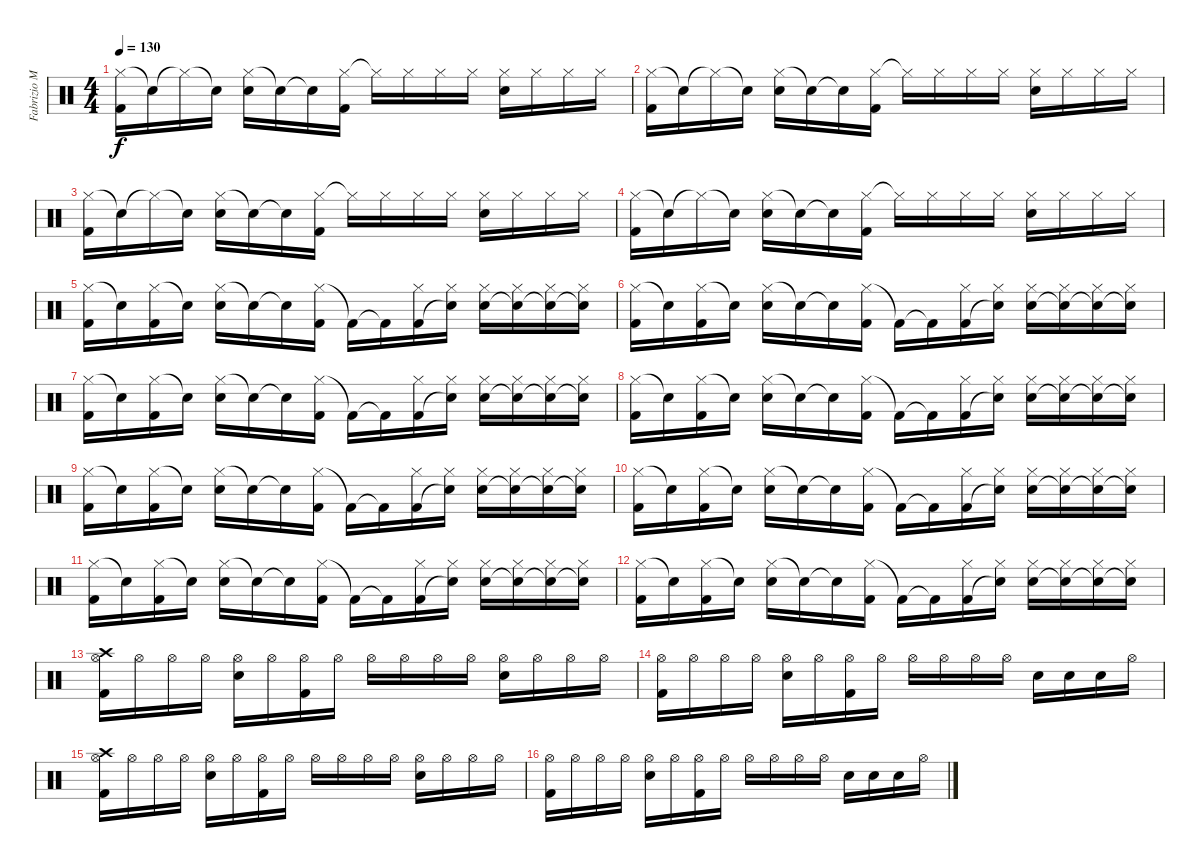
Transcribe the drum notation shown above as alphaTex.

\track ("Fabrizio Moretti" "Fabrizio M") {instrument percussion bank 127}
\staff {score}
\articulation defaults
\ts (4 4)
\tempo 130
\clef neutral
\ks c
("Hi-Hat (closed)" "Kick (hit) 2").16{dy f} "Snare (hit)"{t}.16 "Hi-Hat (closed)"{t}.16 "Snare (hit)"{t}.16 ("Hi-Hat (closed)" "Electric Snare (hit)").16 "Snare (hit)"{t}.16 "Snare (hit)"{t}.16 ("Hi-Hat (closed)" "Kick (hit) 2").16 "Hi-Hat (closed)"{t}.16 "Hi-Hat (closed)".16 "Hi-Hat (closed)".16 "Hi-Hat (closed)".16 ("Hi-Hat (closed)" "Electric Snare (hit)").16 "Hi-Hat (closed)".16 "Hi-Hat (closed)".16 "Hi-Hat (closed)".16 |
("Hi-Hat (closed)" "Kick (hit) 2").16 "Snare (hit)"{t}.16 "Hi-Hat (closed)"{t}.16 "Snare (hit)"{t}.16 ("Hi-Hat (closed)" "Electric Snare (hit)").16 "Snare (hit)"{t}.16 "Snare (hit)"{t}.16 ("Hi-Hat (closed)" "Kick (hit) 2").16 "Hi-Hat (closed)"{t}.16 "Hi-Hat (closed)".16 "Hi-Hat (closed)".16 "Hi-Hat (closed)".16 ("Hi-Hat (closed)" "Electric Snare (hit)").16 "Hi-Hat (closed)".16 "Hi-Hat (closed)".16 "Hi-Hat (closed)".16 |
("Hi-Hat (closed)" "Kick (hit) 2").16 "Snare (hit)"{t}.16 "Hi-Hat (closed)"{t}.16 "Snare (hit)"{t}.16 ("Hi-Hat (closed)" "Electric Snare (hit)").16 "Snare (hit)"{t}.16 "Snare (hit)"{t}.16 ("Hi-Hat (closed)" "Kick (hit) 2").16 "Hi-Hat (closed)"{t}.16 "Hi-Hat (closed)".16 "Hi-Hat (closed)".16 "Hi-Hat (closed)".16 ("Hi-Hat (closed)" "Electric Snare (hit)").16 "Hi-Hat (closed)".16 "Hi-Hat (closed)".16 "Hi-Hat (closed)".16 |
("Hi-Hat (closed)" "Kick (hit) 2").16 "Snare (hit)"{t}.16 "Hi-Hat (closed)"{t}.16 "Snare (hit)"{t}.16 ("Hi-Hat (closed)" "Electric Snare (hit)").16 "Snare (hit)"{t}.16 "Snare (hit)"{t}.16 ("Hi-Hat (closed)" "Kick (hit) 2").16 "Hi-Hat (closed)"{t}.16 "Hi-Hat (closed)".16 "Hi-Hat (closed)".16 "Hi-Hat (closed)".16 ("Hi-Hat (closed)" "Electric Snare (hit)").16 "Hi-Hat (closed)".16 "Hi-Hat (closed)".16 "Hi-Hat (closed)".16 |
("Hi-Hat (closed)" "Kick (hit) 2").16 "Snare (hit)"{t}.16 ("Hi-Hat (closed)" "Kick (hit) 2").16 "Snare (hit)"{t}.16 ("Hi-Hat (closed)" "Electric Snare (hit)").16 "Snare (hit)"{t}.16 "Snare (hit)"{t}.16 ("Hi-Hat (closed)" "Kick (hit) 2").16 "Kick (hit) 2"{t}.16 "Kick (hit) 2"{t}.16 ("Hi-Hat (closed)" "Kick (hit) 2").16 ("Hi-Hat (closed)" "Snare (hit)"{t}).16 ("Hi-Hat (closed)" "Electric Snare (hit)").16 ("Hi-Hat (closed)" "Snare (hit)"{t}).16 ("Hi-Hat (closed)" "Electric Snare (hit)"{t}).16 ("Hi-Hat (closed)" "Snare (hit)"{t}).16 |
("Hi-Hat (closed)" "Kick (hit) 2").16 "Snare (hit)"{t}.16 ("Hi-Hat (closed)" "Kick (hit) 2").16 "Snare (hit)"{t}.16 ("Hi-Hat (closed)" "Electric Snare (hit)").16 "Snare (hit)"{t}.16 "Snare (hit)"{t}.16 ("Hi-Hat (closed)" "Kick (hit) 2").16 "Kick (hit) 2"{t}.16 "Kick (hit) 2"{t}.16 ("Hi-Hat (closed)" "Kick (hit) 2").16 ("Hi-Hat (closed)" "Snare (hit)"{t}).16 ("Hi-Hat (closed)" "Electric Snare (hit)").16 ("Hi-Hat (closed)" "Snare (hit)"{t}).16 ("Hi-Hat (closed)" "Electric Snare (hit)"{t}).16 ("Hi-Hat (closed)" "Snare (hit)"{t}).16 |
("Hi-Hat (closed)" "Kick (hit) 2").16 "Snare (hit)"{t}.16 ("Hi-Hat (closed)" "Kick (hit) 2").16 "Snare (hit)"{t}.16 ("Hi-Hat (closed)" "Electric Snare (hit)").16 "Snare (hit)"{t}.16 "Snare (hit)"{t}.16 ("Hi-Hat (closed)" "Kick (hit) 2").16 "Kick (hit) 2"{t}.16 "Kick (hit) 2"{t}.16 ("Hi-Hat (closed)" "Kick (hit) 2").16 ("Hi-Hat (closed)" "Snare (hit)"{t}).16 ("Hi-Hat (closed)" "Electric Snare (hit)").16 ("Hi-Hat (closed)" "Snare (hit)"{t}).16 ("Hi-Hat (closed)" "Electric Snare (hit)"{t}).16 ("Hi-Hat (closed)" "Snare (hit)"{t}).16 |
("Hi-Hat (closed)" "Kick (hit) 2").16 "Snare (hit)"{t}.16 ("Hi-Hat (closed)" "Kick (hit) 2").16 "Snare (hit)"{t}.16 ("Hi-Hat (closed)" "Electric Snare (hit)").16 "Snare (hit)"{t}.16 "Snare (hit)"{t}.16 ("Hi-Hat (closed)" "Kick (hit) 2").16 "Kick (hit) 2"{t}.16 "Kick (hit) 2"{t}.16 ("Hi-Hat (closed)" "Kick (hit) 2").16 ("Hi-Hat (closed)" "Snare (hit)"{t}).16 ("Hi-Hat (closed)" "Electric Snare (hit)").16 ("Hi-Hat (closed)" "Snare (hit)"{t}).16 ("Hi-Hat (closed)" "Electric Snare (hit)"{t}).16 ("Hi-Hat (closed)" "Snare (hit)"{t}).16 |
("Hi-Hat (closed)" "Kick (hit) 2").16 "Snare (hit)"{t}.16 ("Hi-Hat (closed)" "Kick (hit) 2").16 "Snare (hit)"{t}.16 ("Hi-Hat (closed)" "Electric Snare (hit)").16 "Snare (hit)"{t}.16 "Snare (hit)"{t}.16 ("Hi-Hat (closed)" "Kick (hit) 2").16 "Kick (hit) 2"{t}.16 "Kick (hit) 2"{t}.16 ("Hi-Hat (closed)" "Kick (hit) 2").16 ("Hi-Hat (closed)" "Snare (hit)"{t}).16 ("Hi-Hat (closed)" "Electric Snare (hit)").16 ("Hi-Hat (closed)" "Snare (hit)"{t}).16 ("Hi-Hat (closed)" "Electric Snare (hit)"{t}).16 ("Hi-Hat (closed)" "Snare (hit)"{t}).16 |
("Hi-Hat (closed)" "Kick (hit) 2").16 "Snare (hit)"{t}.16 ("Hi-Hat (closed)" "Kick (hit) 2").16 "Snare (hit)"{t}.16 ("Hi-Hat (closed)" "Electric Snare (hit)").16 "Snare (hit)"{t}.16 "Snare (hit)"{t}.16 ("Hi-Hat (closed)" "Kick (hit) 2").16 "Kick (hit) 2"{t}.16 "Kick (hit) 2"{t}.16 ("Hi-Hat (closed)" "Kick (hit) 2").16 ("Hi-Hat (closed)" "Snare (hit)"{t}).16 ("Hi-Hat (closed)" "Electric Snare (hit)").16 ("Hi-Hat (closed)" "Snare (hit)"{t}).16 ("Hi-Hat (closed)" "Electric Snare (hit)"{t}).16 ("Hi-Hat (closed)" "Snare (hit)"{t}).16 |
("Hi-Hat (closed)" "Kick (hit) 2").16 "Snare (hit)"{t}.16 ("Hi-Hat (closed)" "Kick (hit) 2").16 "Snare (hit)"{t}.16 ("Hi-Hat (closed)" "Electric Snare (hit)").16 "Snare (hit)"{t}.16 "Snare (hit)"{t}.16 ("Hi-Hat (closed)" "Kick (hit) 2").16 "Kick (hit) 2"{t}.16 "Kick (hit) 2"{t}.16 ("Hi-Hat (closed)" "Kick (hit) 2").16 ("Hi-Hat (closed)" "Snare (hit)"{t}).16 ("Hi-Hat (closed)" "Electric Snare (hit)").16 ("Hi-Hat (closed)" "Snare (hit)"{t}).16 ("Hi-Hat (closed)" "Electric Snare (hit)"{t}).16 ("Hi-Hat (closed)" "Snare (hit)"{t}).16 |
("Hi-Hat (closed)" "Kick (hit) 2").16 "Snare (hit)"{t}.16 ("Hi-Hat (closed)" "Kick (hit) 2").16 "Snare (hit)"{t}.16 ("Hi-Hat (closed)" "Electric Snare (hit)").16 "Snare (hit)"{t}.16 "Snare (hit)"{t}.16 ("Hi-Hat (closed)" "Kick (hit) 2").16 "Kick (hit) 2"{t}.16 "Kick (hit) 2"{t}.16 ("Hi-Hat (closed)" "Kick (hit) 2").16 ("Hi-Hat (closed)" "Snare (hit)"{t}).16 ("Hi-Hat (closed)" "Electric Snare (hit)").16 ("Hi-Hat (closed)" "Snare (hit)"{t}).16 ("Hi-Hat (closed)" "Electric Snare (hit)"{t}).16 ("Hi-Hat (closed)" "Snare (hit)"{t}).16 |
("Crash high (hit)" "Hi-Hat (open)" "Kick (hit) 2").16 "Hi-Hat (open)".16 "Hi-Hat (open)".16 "Hi-Hat (open)".16 ("Hi-Hat (open)" "Electric Snare (hit)").16 "Hi-Hat (open)".16 ("Hi-Hat (open)" "Kick (hit) 2").16 "Hi-Hat (open)".16 "Hi-Hat (open)".16 "Hi-Hat (open)".16 "Hi-Hat (open)".16 "Hi-Hat (open)".16 ("Hi-Hat (open)" "Electric Snare (hit)").16 "Hi-Hat (open)".16 "Hi-Hat (open)".16 "Hi-Hat (open)".16 |
("Hi-Hat (open)" "Kick (hit) 2").16 "Hi-Hat (open)".16 "Hi-Hat (open)".16 "Hi-Hat (open)".16 ("Hi-Hat (open)" "Electric Snare (hit)").16 "Hi-Hat (open)".16 ("Hi-Hat (open)" "Kick (hit) 2").16 "Hi-Hat (open)".16 "Hi-Hat (open)".16 "Hi-Hat (open)".16 "Hi-Hat (open)".16 "Hi-Hat (open)".16 "Electric Snare (hit)".16 "Electric Snare (hit)".16 "Electric Snare (hit)".16 "Hi-Hat (open)".16 |
("Crash high (hit)" "Hi-Hat (open)" "Kick (hit) 2").16 "Hi-Hat (open)".16 "Hi-Hat (open)".16 "Hi-Hat (open)".16 ("Hi-Hat (open)" "Electric Snare (hit)").16 "Hi-Hat (open)".16 ("Hi-Hat (open)" "Kick (hit) 2").16 "Hi-Hat (open)".16 "Hi-Hat (open)".16 "Hi-Hat (open)".16 "Hi-Hat (open)".16 "Hi-Hat (open)".16 ("Hi-Hat (open)" "Electric Snare (hit)").16 "Hi-Hat (open)".16 "Hi-Hat (open)".16 "Hi-Hat (open)".16 |
("Hi-Hat (open)" "Kick (hit) 2").16 "Hi-Hat (open)".16 "Hi-Hat (open)".16 "Hi-Hat (open)".16 ("Hi-Hat (open)" "Electric Snare (hit)").16 "Hi-Hat (open)".16 ("Hi-Hat (open)" "Kick (hit) 2").16 "Hi-Hat (open)".16 "Hi-Hat (open)".16 "Hi-Hat (open)".16 "Hi-Hat (open)".16 "Hi-Hat (open)".16 "Electric Snare (hit)".16 "Electric Snare (hit)".16 "Electric Snare (hit)".16 "Hi-Hat (open)".16
